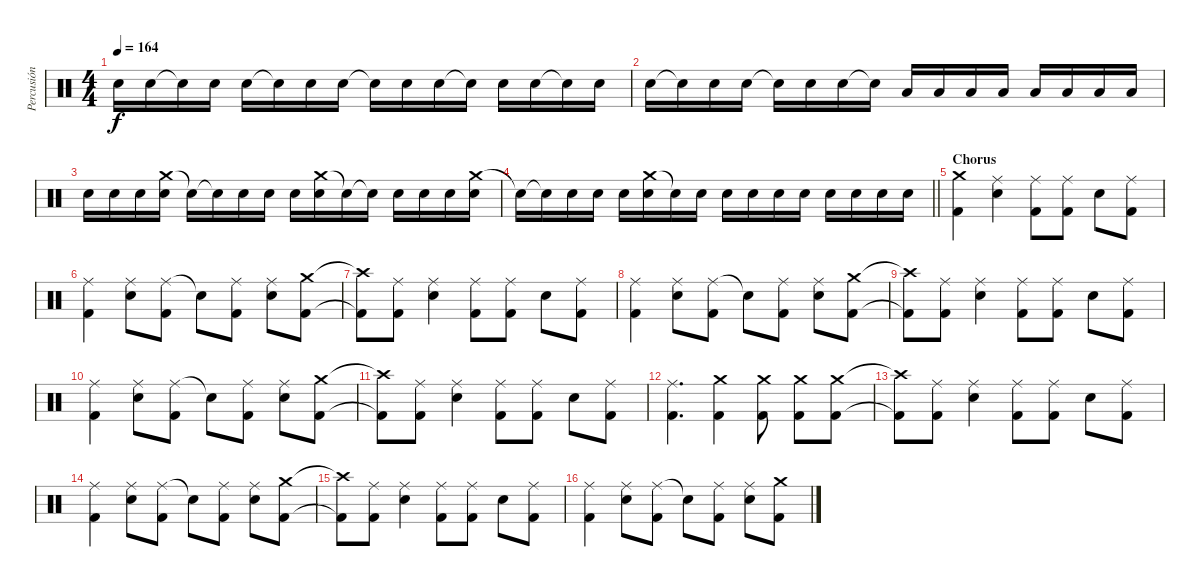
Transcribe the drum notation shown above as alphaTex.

\track ("Percusión" "Percusión") {instrument percussion}
\staff
\articulation defaults
\ts (4 4)
\tempo 164
\clef neutral
\ks c "Snare (hit) 2".16{dy f} "Snare (hit) 2".16 "Snare (hit)"{t}.16 "Snare (hit) 2".16 "Snare (hit) 2".16 "Snare (hit)"{t}.16 "Snare (hit) 2".16 "Snare (hit) 2".16 "Snare (hit)"{t}.16 "Snare (hit) 2".16 "Snare (hit) 2".16 "Snare (hit)"{t}.16 "Snare (hit) 2".16 "Snare (hit) 2".16 "Snare (hit)"{t}.16 "Snare (hit) 2".16
|
"Snare (hit) 2".16 "Snare (hit)"{t}.16 "Snare (hit) 2".16 "Snare (hit) 2".16 "Snare (hit)"{t}.16 "Snare (hit) 2".16 "Snare (hit) 2".16 "Snare (hit)"{t}.16 "Low Tom (hit)".16 "Low Tom (hit)".16 "Low Tom (hit)".16 "Low Tom (hit)".16 "Low Tom (hit)".16 "Low Tom (hit)".16 "Low Tom (hit)".16 "Low Tom (hit)".16 |
"Snare (hit) 2".16 "Snare (hit) 2".16 "Snare (hit) 2".16 ("Crash medium (hit)" "Snare (hit) 2").16 "Snare (hit)"{t}.16 "Snare (hit)"{t}.16 "Snare (hit) 2".16 "Snare (hit) 2".16 "Snare (hit) 2".16 ("Crash medium (hit)" "Snare (hit) 2").16 "Snare (hit)"{t}.16 "Snare (hit) 2"{t}.16 "Snare (hit) 2".16 "Snare (hit) 2".16 "Snare (hit) 2".16 ("Crash medium (hit)" "Snare (hit) 2").16 |
\barLineRight lightlight "Snare (hit)"{t}.16 "Snare (hit)"{t}.16 "Snare (hit) 2".16 "Snare (hit) 2".16 "Snare (hit) 2".16
("Crash medium (hit)" "Snare (hit) 2").16 "Snare (hit)"{t}.16 "Snare (hit) 2".16 "Snare (hit) 2".16 "Snare (hit) 2".16 "Snare (hit) 2".16 "Snare (hit) 2".16 "Snare (hit) 2".16 "Snare (hit) 2".16 "Snare (hit) 2".16 "Snare (hit) 2".16 |
\section ("" "Chorus")
("Crash medium (hit)" "Kick (hit) 2").4 ("Ride (middle)" "Snare (hit) 2").4 ("Ride (middle)" "Kick (hit) 2").8 ("Ride (middle)" "Kick (hit) 2").8 "Snare (hit) 2".8 ("Ride (middle)" "Kick (hit) 2").8 |
("Ride (middle)" "Kick (hit) 2").4 ("Ride (middle)" "Snare (hit) 2").8 ("Ride (middle)" "Kick (hit) 2").8 "Snare (hit)"{t}.8 ("Ride (middle)" "Kick (hit) 2").8 ("Ride (middle)" "Snare (hit) 2").8 ("Crash medium (hit)" "Kick (hit) 2").8 |
("Crash high (hit)"{t} "Kick (hit) 2"{t}).8 ("Ride (middle)" "Kick (hit) 2").8 ("Ride (middle)" "Snare (hit) 2").4 ("Ride (middle)" "Kick (hit) 2").8 ("Ride (middle)" "Kick (hit) 2").8 "Snare (hit) 2".8 ("Ride (middle)" "Kick (hit) 2").8 |
("Ride (middle)" "Kick (hit) 2").4 ("Ride (middle)" "Snare (hit) 2").8 ("Ride (middle)" "Kick (hit) 2").8 "Snare (hit)"{t}.8 ("Ride (middle)" "Kick (hit) 2").8 ("Ride (middle)" "Snare (hit) 2").8 ("Crash medium (hit)" "Kick (hit) 2").8 |
("Crash high (hit)"{t} "Kick (hit) 2"{t}).8 ("Ride (middle)" "Kick (hit) 2").8 ("Ride (middle)" "Snare (hit) 2").4 ("Ride (middle)" "Kick (hit) 2").8 ("Ride (middle)" "Kick (hit) 2").8 "Snare (hit) 2".8 ("Ride (middle)" "Kick (hit) 2").8 |
("Ride (middle)" "Kick (hit) 2").4 ("Ride (middle)" "Snare (hit) 2").8 ("Ride (middle)" "Kick (hit) 2").8 "Snare (hit)"{t}.8 ("Ride (middle)" "Kick (hit) 2").8 ("Ride (middle)" "Snare (hit) 2").8 ("Crash medium (hit)" "Kick (hit) 2").8 |
("Crash high (hit)"{t} "Kick (hit) 2"{t}).8 ("Ride (middle)" "Kick (hit) 2").8 ("Ride (middle)" "Snare (hit) 2").4 ("Ride (middle)" "Kick (hit) 2").8 ("Ride (middle)" "Kick (hit) 2").8 "Snare (hit) 2".8 ("Ride (middle)" "Kick (hit) 2").8 |
("Ride (middle)" "Kick (hit) 2").4{d} ("Crash medium (hit)" "Kick (hit) 2").4 ("Crash medium (hit)" "Kick (hit) 2").8 ("Crash medium (hit)" "Kick (hit) 2").8 ("Crash medium (hit)" "Kick (hit) 2").8 |
("Crash high (hit)"{t} "Kick (hit) 2"{t}).8 ("Ride (middle)" "Kick (hit) 2").8 ("Ride (middle)" "Snare (hit) 2").4 ("Ride (middle)" "Kick (hit) 2").8 ("Ride (middle)" "Kick (hit) 2").8 "Snare (hit) 2".8 ("Ride (middle)" "Kick (hit) 2").8 |
("Ride (middle)" "Kick (hit) 2").4 ("Ride (middle)" "Snare (hit) 2").8 ("Ride (middle)" "Kick (hit) 2").8 "Snare (hit)"{t}.8 ("Ride (middle)" "Kick (hit) 2").8 ("Ride (middle)" "Snare (hit) 2").8 ("Crash medium (hit)" "Kick (hit) 2").8 |
("Crash high (hit)"{t} "Kick (hit) 2"{t}).8 ("Ride (middle)" "Kick (hit) 2").8 ("Ride (middle)" "Snare (hit) 2").4 ("Ride (middle)" "Kick (hit) 2").8 ("Ride (middle)" "Kick (hit) 2").8 "Snare (hit) 2".8 ("Ride (middle)" "Kick (hit) 2").8 |
("Ride (middle)" "Kick (hit) 2").4 ("Ride (middle)" "Snare (hit) 2").8 ("Ride (middle)" "Kick (hit) 2").8 "Snare (hit)"{t}.8 ("Ride (middle)" "Kick (hit) 2").8 ("Ride (middle)" "Snare (hit) 2").8 ("Crash medium (hit)" "Kick (hit) 2").8
